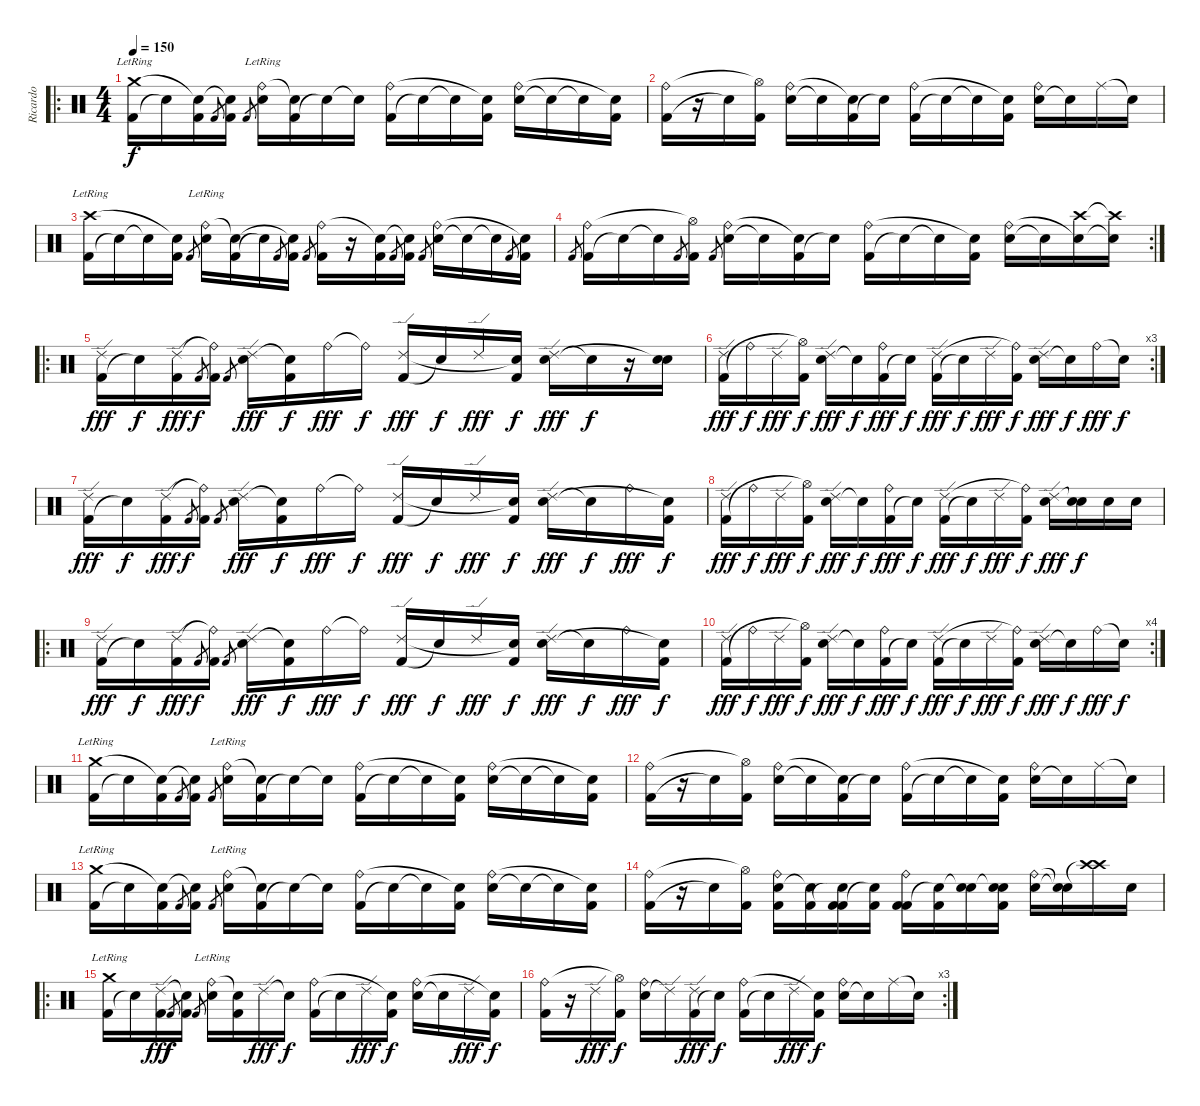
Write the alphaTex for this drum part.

\track ("Ricardo" "Ricardo") {instrument percussion}
\staff {score}
\articulation defaults
\ro
\ts (4 4)
\tempo 150
\clef neutral
\ks c
("Kick (hit) 2" "Crash medium (hit)"{lr}).16{dy f} "Snare (hit)"{t}.16 ("Kick (hit) 2" "Snare (hit)"{t}).16 "Kick (hit) 2".8{gr} ("Kick (hit) 2" "Snare (hit)"{t}).16 "Kick (hit) 2".8{gr} ("Snare (hit) 2" "Ride (bell)"{lr}).16 ("Kick (hit) 2" "Snare (hit)"{t}).16 "Snare (hit)"{t}.16 "Snare (hit)"{t}.16 ("Kick (hit) 2" "Ride (bell)").16 "Snare (hit)"{t}.16 "Snare (hit)"{t}.16 ("Kick (hit) 2" "Snare (hit)"{t}).16 ("Snare (hit) 2" "Ride (bell)").16 "Snare (hit)"{t}.16 "Snare (hit)"{t}.16 ("Kick (hit) 2" "Snare (hit)"{t}).16 |
("Kick (hit) 2" "Ride (bell)").16 r.16 "Snare (hit)"{t}.16 ("Kick (hit) 2" "Hi-Hat (open)"{t}).16 ("Snare (hit) 2" "Ride (bell)").16 "Snare (hit)"{t}.16 ("Kick (hit) 2" "Snare (hit)"{t}).16 "Snare (hit)"{t}.16 ("Kick (hit) 2" "Ride (bell)").16 "Snare (hit)"{t}.16 "Snare (hit)"{t}.16 ("Kick (hit) 2" "Snare (hit)"{t}).16 ("Snare (hit) 2" "Ride (bell)").16 "Snare (hit)"{t}.16 "Ride (middle)".16 "Snare (hit)"{t}.16 |
("Kick (hit) 2" "Crash high (hit)"{lr}).16 "Snare (hit)"{t}.16 "Snare (hit)"{t}.16 ("Kick (hit) 2" "Snare (hit)"{t}).16 "Kick (hit) 2".8{gr} ("Snare (hit) 2" "Ride (bell)"{lr}).16 ("Kick (hit) 2" "Snare (hit)"{t}).16 "Snare (hit)"{t}.16 "Kick (hit) 2".8{gr} ("Kick (hit) 2" "Snare (hit)"{t}).16 "Kick (hit) 2".8{gr} ("Kick (hit) 2" "Ride (bell)").16 r.16 ("Kick (hit) 2" "Snare (hit)"{t}).16 "Kick (hit) 2".8{gr} ("Kick (hit) 2" "Snare (hit)"{t}).16 "Kick (hit) 2".8{gr} ("Snare (hit) 2" "Ride (bell)").16 "Snare (hit)"{t}.16 "Snare (hit)"{t}.16 "Kick (hit) 2".8{gr} ("Kick (hit) 2" "Snare (hit)"{t}).16 |
\rc 2 "Kick (hit) 2".8{gr}
("Kick (hit) 2" "Ride (bell)").16 "Snare (hit)"{t}.16 "Snare (hit)"{t}.16 "Kick (hit) 2".8{gr} ("Kick (hit) 2" "Hi-Hat (open)"{t}).16 "Kick (hit) 2".8{gr} ("Snare (hit) 2" "Ride (bell)").16 "Snare (hit)"{t}.16 ("Kick (hit) 2" "Snare (hit)"{t}).16 "Snare (hit)"{t}.16 ("Kick (hit) 2" "Ride (bell)").16 "Snare (hit)"{t}.16 "Snare (hit)"{t}.16 ("Kick (hit) 2" "Snare (hit)"{t}).16 ("Snare (hit) 2" "Ride (bell)").16 "Snare (hit)"{t}.16 ("Crash high (hit)" "Snare (hit)"{t}).16 ("Crash high (hit)"{t} "Snare (hit)"{t}).16 |
\ro
("Kick (hit) 2" "Ride (edge) 2").16{dy fff} "Snare (hit)"{t}.16{dy f} ("Kick (hit) 2" "Ride (edge) 2").16{dy fff} "Kick (hit) 2".8{gr dy f} ("Kick (hit) 2" "Ride (bell)"{t}).16 "Kick (hit) 2".8{gr} ("Snare (hit) 2" "Ride (edge) 2").16{dy fff} ("Kick (hit) 2" "Snare (hit)"{t}).16{dy f} "Ride (bell)".16{dy fff} "Ride (bell)"{t}.16{dy f} ("Kick (hit) 2" "Ride (edge) 2").16{dy fff} "Snare (hit)"{t}.16{dy f} "Ride (edge) 2".16{dy fff} ("Kick (hit) 2" "Snare (hit)"{t}).16{dy f} ("Snare (hit) 2" "Ride (edge) 2").16{dy fff} "Snare (hit)"{t}.16{dy f} r.16 ("Snare (hit) 2" "Snare (hit)"{t}).16 |
\rc 3
("Kick (hit) 2" "Ride (edge) 2").16{dy fff} "Ride (bell)"{t}.16{dy f} "Ride (edge) 2".16{dy fff} ("Kick (hit) 2" "Hi-Hat (open)"{t}).16{dy f} ("Snare (hit) 2" "Ride (edge) 2").16{dy fff} "Snare (hit)"{t}.16{dy f} ("Kick (hit) 2" "Ride (bell)").16{dy fff} "Snare (hit)"{t}.16{dy f} ("Kick (hit) 2" "Ride (edge) 2").16{dy fff} "Snare (hit)"{t}.16{dy f} "Ride (edge) 2".16{dy fff} ("Kick (hit) 2" "Ride (bell)"{t}).16{dy f} ("Snare (hit) 2" "Ride (edge) 2").16{dy fff} "Snare (hit)"{t}.16{dy f} "Ride (bell)".16{dy fff} "Snare (hit)"{t}.16{dy f} |
("Kick (hit) 2" "Ride (edge) 2").16{dy fff} "Snare (hit)"{t}.16{dy f} ("Kick (hit) 2" "Ride (edge) 2").16{dy fff} "Kick (hit) 2".8{gr dy f} ("Kick (hit) 2" "Ride (bell)"{t}).16 "Kick (hit) 2".8{gr} ("Snare (hit) 2" "Ride (edge) 2").16{dy fff} ("Kick (hit) 2" "Snare (hit)"{t}).16{dy f} "Ride (bell)".16{dy fff} "Ride (bell)"{t}.16{dy f} ("Kick (hit) 2" "Ride (edge) 2").16{dy fff} "Snare (hit)"{t}.16{dy f} "Ride (edge) 2".16{dy fff} ("Kick (hit) 2" "Snare (hit)"{t}).16{dy f} ("Snare (hit) 2" "Ride (edge) 2").16{dy fff} "Snare (hit)"{t}.16{dy f} "Ride (bell)".16{dy fff} ("Kick (hit) 2" "Snare (hit)"{t}).16{dy f} |
("Kick (hit) 2" "Ride (edge) 2").16{dy fff} "Ride (bell)"{t}.16{dy f} "Ride (edge) 2".16{dy fff} ("Kick (hit) 2" "Hi-Hat (open)"{t}).16{dy f} ("Snare (hit) 2" "Ride (edge) 2").16{dy fff} "Snare (hit)"{t}.16{dy f} ("Kick (hit) 2" "Ride (bell)").16{dy fff} "Snare (hit)"{t}.16{dy f} ("Kick (hit) 2" "Ride (edge) 2").16{dy fff} "Snare (hit)"{t}.16{dy f} "Ride (edge) 2".16{dy fff} ("Kick (hit) 2" "Ride (bell)"{t}).16{dy f} ("Snare (hit) 2" "Ride (edge) 2").16{dy fff} ("Snare (hit) 2" "Snare (hit)"{t}).16{dy f} "Snare (hit) 2".16 "Snare (hit) 2".16 |
\ro
("Kick (hit) 2" "Ride (edge) 2").16{dy fff} "Snare (hit)"{t}.16{dy f} ("Kick (hit) 2" "Ride (edge) 2").16{dy fff} "Kick (hit) 2".8{gr dy f} ("Kick (hit) 2" "Ride (bell)"{t}).16 "Kick (hit) 2".8{gr} ("Snare (hit) 2" "Ride (edge) 2").16{dy fff} ("Kick (hit) 2" "Snare (hit)"{t}).16{dy f} "Ride (bell)".16{dy fff} "Ride (bell)"{t}.16{dy f} ("Kick (hit) 2" "Ride (edge) 2").16{dy fff} "Snare (hit)"{t}.16{dy f} "Ride (edge) 2".16{dy fff} ("Kick (hit) 2" "Snare (hit)"{t}).16{dy f} ("Snare (hit) 2" "Ride (edge) 2").16{dy fff} "Snare (hit)"{t}.16{dy f} "Ride (bell)".16{dy fff} ("Kick (hit) 2" "Snare (hit)"{t}).16{dy f} |
\rc 4
("Kick (hit) 2" "Ride (edge) 2").16{dy fff} "Ride (bell)"{t}.16{dy f} "Ride (edge) 2".16{dy fff} ("Kick (hit) 2" "Hi-Hat (open)"{t}).16{dy f} ("Snare (hit) 2" "Ride (edge) 2").16{dy fff} "Snare (hit)"{t}.16{dy f} ("Kick (hit) 2" "Ride (bell)").16{dy fff} "Snare (hit)"{t}.16{dy f} ("Kick (hit) 2" "Ride (edge) 2").16{dy fff} "Snare (hit)"{t}.16{dy f} "Ride (edge) 2".16{dy fff} ("Kick (hit) 2" "Ride (bell)"{t}).16{dy f} ("Snare (hit) 2" "Ride (edge) 2").16{dy fff} "Snare (hit)"{t}.16{dy f} "Ride (bell)".16{dy fff} "Snare (hit)"{t}.16{dy f} |
("Kick (hit) 2" "Crash medium (hit)"{lr}).16 "Snare (hit)"{t}.16 ("Kick (hit) 2" "Snare (hit)"{t}).16 "Kick (hit) 2".8{gr} ("Kick (hit) 2" "Snare (hit)"{t}).16 "Kick (hit) 2".8{gr} ("Snare (hit) 2" "Ride (bell)"{lr}).16 ("Kick (hit) 2" "Snare (hit)"{t}).16 "Snare (hit)"{t}.16 "Snare (hit)"{t}.16 ("Kick (hit) 2" "Ride (bell)").16 "Snare (hit)"{t}.16 "Snare (hit)"{t}.16 ("Kick (hit) 2" "Snare (hit)"{t}).16 ("Snare (hit) 2" "Ride (bell)").16 "Snare (hit)"{t}.16 "Snare (hit)"{t}.16 ("Kick (hit) 2" "Snare (hit)"{t}).16 |
("Kick (hit) 2" "Ride (bell)").16 r.16 "Snare (hit)"{t}.16 ("Kick (hit) 2" "Hi-Hat (open)"{t}).16 ("Snare (hit) 2" "Ride (bell)").16 "Snare (hit)"{t}.16 ("Kick (hit) 2" "Snare (hit)"{t}).16 "Snare (hit)"{t}.16 ("Kick (hit) 2" "Ride (bell)").16 "Snare (hit)"{t}.16 "Snare (hit)"{t}.16 ("Kick (hit) 2" "Snare (hit)"{t}).16 ("Snare (hit) 2" "Ride (bell)").16 "Snare (hit)"{t}.16 "Ride (middle)".16 "Snare (hit)"{t}.16 |
("Kick (hit) 2" "Crash medium (hit)"{lr}).16 "Snare (hit)"{t}.16 ("Kick (hit) 2" "Snare (hit)"{t}).16 "Kick (hit) 2".8{gr} ("Kick (hit) 2" "Snare (hit)"{t}).16 "Kick (hit) 2".8{gr} ("Snare (hit) 2" "Ride (bell)"{lr}).16 ("Kick (hit) 2" "Snare (hit)"{t}).16 "Snare (hit)"{t}.16 "Snare (hit)"{t}.16 ("Kick (hit) 2" "Ride (bell)").16 "Snare (hit)"{t}.16 "Snare (hit)"{t}.16 ("Kick (hit) 2" "Snare (hit)"{t}).16 ("Snare (hit) 2" "Ride (bell)").16 "Snare (hit)"{t}.16 "Snare (hit)"{t}.16 ("Kick (hit) 2" "Snare (hit)"{t}).16 |
("Kick (hit) 2" "Ride (bell)").16 r.16 "Snare (hit)"{t}.16 ("Kick (hit) 2" "Hi-Hat (open)"{t}).16 ("Snare (hit) 2" "Ride (bell)" "Kick (hit) 2").16 ("Snare (hit)"{t} "Kick (hit) 2").16 ("Kick (hit) 2" "Snare (hit)"{t} "Kick (hit) 2").16 ("Snare (hit)"{t} "Kick (hit) 2").16 ("Kick (hit) 2" "Ride (bell)" "Kick (hit) 2").16 ("Snare (hit)"{t} "Kick (hit) 2").16 ("Snare (hit)"{t} "Snare (hit) 2").16 ("Kick (hit) 2" "Snare (hit)"{t} "Snare (hit) 2").16 ("Snare (hit) 2" "Ride (bell)").16 ("Snare (hit) 2"{t} "Snare (hit)"{t}).16 ("Crash high (hit)" "Crash high (hit)"{t}).16 "Snare (hit) 2".16 |
\ro
("Kick (hit) 2" "Crash medium (hit)"{lr}).16 "Snare (hit)"{t}.16 ("Kick (hit) 2" "Ride (edge) 2").16{dy fff} "Kick (hit) 2".8{gr dy f} ("Kick (hit) 2" "Snare (hit)"{t}).16 "Kick (hit) 2".8{gr} ("Snare (hit) 2" "Ride (bell)"{lr}).16 ("Kick (hit) 2" "Snare (hit)"{t}).16 "Ride (edge) 2".16{dy fff} "Snare (hit)"{t}.16{dy f} ("Kick (hit) 2" "Ride (bell)").16 "Snare (hit)"{t}.16 "Ride (edge) 2".16{dy fff} ("Kick (hit) 2" "Snare (hit)"{t}).16{dy f} ("Snare (hit) 2" "Ride (bell)").16 "Snare (hit)"{t}.16 "Ride (edge) 2".16{dy fff} ("Kick (hit) 2" "Snare (hit)"{t}).16{dy f} |
\rc 3
("Kick (hit) 2" "Ride (bell)").16 r.16 "Ride (edge) 2".16{dy fff} ("Kick (hit) 2" "Hi-Hat (open)"{t}).16{dy f} ("Snare (hit) 2" "Ride (bell)").16 "Ride (edge) 2"{t}.16 ("Kick (hit) 2" "Ride (edge) 2").16{dy fff} "Snare (hit)"{t}.16{dy f} ("Kick (hit) 2" "Ride (bell)").16 "Snare (hit)"{t}.16 "Ride (edge) 2".16{dy fff} ("Kick (hit) 2" "Snare (hit)"{t}).16{dy f} ("Snare (hit) 2" "Ride (bell)").16 "Snare (hit)"{t}.16 "Ride (middle)".16 "Snare (hit)"{t}.16
